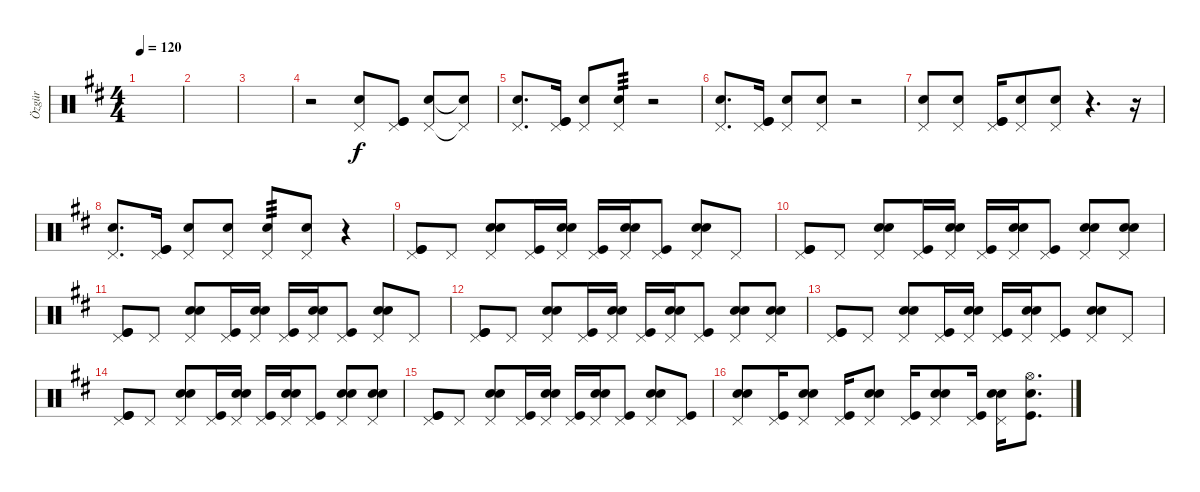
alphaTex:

\track ("Özgür" "Özgür") {instrument percussion}
\staff {score}
\articulation defaults
\ts (4 4)
\tempo 120
\clef neutral
\ks d
|
|
|
r.2 ("Pedal Hi-Hat (hit)" "Electric Snare (hit)").8 ("Pedal Hi-Hat (hit)" "Kick (hit)" "Kick (hit)").8 ("Pedal Hi-Hat (hit)" "Electric Snare (hit)").8 ("Pedal Hi-Hat (hit)"{t} "Electric Snare (hit)"{t}).8 |
("Pedal Hi-Hat (hit)" "Electric Snare (hit)").8{d} ("Pedal Hi-Hat (hit)" "Kick (hit)" "Kick (hit)").16 ("Pedal Hi-Hat (hit)" "Electric Snare (hit)").8 ("Pedal Hi-Hat (hit)" "Electric Snare (hit)").8{tp 3} r.2 |
("Pedal Hi-Hat (hit)" "Electric Snare (hit)").8{d} ("Pedal Hi-Hat (hit)" "Kick (hit)" "Kick (hit)").16 ("Pedal Hi-Hat (hit)" "Electric Snare (hit)").8 ("Pedal Hi-Hat (hit)" "Electric Snare (hit)").8 r.2 |
("Pedal Hi-Hat (hit)" "Electric Snare (hit)").8 ("Pedal Hi-Hat (hit)" "Electric Snare (hit)").8 ("Pedal Hi-Hat (hit)" "Kick (hit)" "Kick (hit)").16 ("Pedal Hi-Hat (hit)" "Electric Snare (hit)").8 ("Pedal Hi-Hat (hit)" "Electric Snare (hit)").8 r.4{d} r.16 |
("Pedal Hi-Hat (hit)" "Electric Snare (hit)").8{d} ("Pedal Hi-Hat (hit)" "Kick (hit)" "Kick (hit)").16 ("Pedal Hi-Hat (hit)" "Electric Snare (hit)").8 ("Pedal Hi-Hat (hit)" "Electric Snare (hit)").8 ("Pedal Hi-Hat (hit)" "Electric Snare (hit)").8{tp 3} ("Pedal Hi-Hat (hit)" "Electric Snare (hit)").8 r.4 |
("Pedal Hi-Hat (hit)" "Kick (hit)" "Kick (hit)").8 "Pedal Hi-Hat (hit)".8 ("Pedal Hi-Hat (hit)" "Electric Snare (hit)" "Electric Snare (hit)").8 ("Pedal Hi-Hat (hit)" "Kick (hit)").16 ("Pedal Hi-Hat (hit)" "Electric Snare (hit)" "Electric Snare (hit)").16 ("Pedal Hi-Hat (hit)" "Kick (hit)").16 ("Pedal Hi-Hat (hit)" "Electric Snare (hit)" "Electric Snare (hit)").16 ("Pedal Hi-Hat (hit)" "Kick (hit)").8 ("Pedal Hi-Hat (hit)" "Electric Snare (hit)" "Electric Snare (hit)").8 "Pedal Hi-Hat (hit)".8 |
("Pedal Hi-Hat (hit)" "Kick (hit)" "Kick (hit)").8 "Pedal Hi-Hat (hit)".8 ("Pedal Hi-Hat (hit)" "Electric Snare (hit)" "Electric Snare (hit)").8 ("Pedal Hi-Hat (hit)" "Kick (hit)").16 ("Pedal Hi-Hat (hit)" "Electric Snare (hit)" "Electric Snare (hit)").16 ("Pedal Hi-Hat (hit)" "Kick (hit)").16 ("Pedal Hi-Hat (hit)" "Electric Snare (hit)" "Electric Snare (hit)").16 ("Pedal Hi-Hat (hit)" "Kick (hit)").8 ("Pedal Hi-Hat (hit)" "Electric Snare (hit)" "Electric Snare (hit)").8 ("Pedal Hi-Hat (hit)" "Electric Snare (hit)" "Electric Snare (hit)").8 |
("Pedal Hi-Hat (hit)" "Kick (hit)" "Kick (hit)").8 "Pedal Hi-Hat (hit)".8 ("Pedal Hi-Hat (hit)" "Electric Snare (hit)" "Electric Snare (hit)").8 ("Pedal Hi-Hat (hit)" "Kick (hit)").16 ("Pedal Hi-Hat (hit)" "Electric Snare (hit)" "Electric Snare (hit)").16 ("Pedal Hi-Hat (hit)" "Kick (hit)").16 ("Pedal Hi-Hat (hit)" "Electric Snare (hit)" "Electric Snare (hit)").16 ("Pedal Hi-Hat (hit)" "Kick (hit)").8 ("Pedal Hi-Hat (hit)" "Electric Snare (hit)" "Electric Snare (hit)").8 "Pedal Hi-Hat (hit)".8 |
("Pedal Hi-Hat (hit)" "Kick (hit)" "Kick (hit)").8 "Pedal Hi-Hat (hit)".8 ("Pedal Hi-Hat (hit)" "Electric Snare (hit)" "Electric Snare (hit)").8 ("Pedal Hi-Hat (hit)" "Kick (hit)").16 ("Pedal Hi-Hat (hit)" "Electric Snare (hit)" "Electric Snare (hit)").16 ("Pedal Hi-Hat (hit)" "Kick (hit)").16 ("Pedal Hi-Hat (hit)" "Electric Snare (hit)" "Electric Snare (hit)").16 ("Pedal Hi-Hat (hit)" "Kick (hit)").8 ("Pedal Hi-Hat (hit)" "Electric Snare (hit)" "Electric Snare (hit)").8 ("Pedal Hi-Hat (hit)" "Electric Snare (hit)" "Electric Snare (hit)").8 |
("Pedal Hi-Hat (hit)" "Kick (hit)" "Kick (hit)").8 "Pedal Hi-Hat (hit)".8 ("Pedal Hi-Hat (hit)" "Electric Snare (hit)" "Electric Snare (hit)").8 ("Pedal Hi-Hat (hit)" "Kick (hit)").16 ("Pedal Hi-Hat (hit)" "Electric Snare (hit)" "Electric Snare (hit)").16 ("Pedal Hi-Hat (hit)" "Kick (hit)").16 ("Pedal Hi-Hat (hit)" "Electric Snare (hit)" "Electric Snare (hit)").16 ("Pedal Hi-Hat (hit)" "Kick (hit)").8 ("Pedal Hi-Hat (hit)" "Electric Snare (hit)" "Electric Snare (hit)").8 "Pedal Hi-Hat (hit)".8 |
("Pedal Hi-Hat (hit)" "Kick (hit)" "Kick (hit)").8 "Pedal Hi-Hat (hit)".8 ("Pedal Hi-Hat (hit)" "Electric Snare (hit)" "Electric Snare (hit)").8 ("Pedal Hi-Hat (hit)" "Kick (hit)").16 ("Pedal Hi-Hat (hit)" "Electric Snare (hit)" "Electric Snare (hit)").16 ("Pedal Hi-Hat (hit)" "Kick (hit)").16 ("Pedal Hi-Hat (hit)" "Electric Snare (hit)" "Electric Snare (hit)").16 ("Pedal Hi-Hat (hit)" "Kick (hit)").8 ("Pedal Hi-Hat (hit)" "Electric Snare (hit)" "Electric Snare (hit)").8 ("Pedal Hi-Hat (hit)" "Electric Snare (hit)" "Electric Snare (hit)").8 |
("Pedal Hi-Hat (hit)" "Kick (hit)" "Kick (hit)").8 "Pedal Hi-Hat (hit)".8 ("Pedal Hi-Hat (hit)" "Electric Snare (hit)" "Electric Snare (hit)").8 ("Pedal Hi-Hat (hit)" "Kick (hit)").16 ("Pedal Hi-Hat (hit)" "Electric Snare (hit)" "Electric Snare (hit)").16 ("Pedal Hi-Hat (hit)" "Kick (hit)").16 ("Pedal Hi-Hat (hit)" "Electric Snare (hit)" "Electric Snare (hit)").16 ("Pedal Hi-Hat (hit)" "Kick (hit)").8 ("Pedal Hi-Hat (hit)" "Electric Snare (hit)" "Electric Snare (hit)").8 ("Pedal Hi-Hat (hit)" "Kick (hit)").8 |
("Pedal Hi-Hat (hit)" "Electric Snare (hit)" "Electric Snare (hit)").8 ("Pedal Hi-Hat (hit)" "Kick (hit)").16 ("Pedal Hi-Hat (hit)" "Electric Snare (hit)" "Electric Snare (hit)").8 ("Pedal Hi-Hat (hit)" "Kick (hit)").16 ("Pedal Hi-Hat (hit)" "Electric Snare (hit)" "Electric Snare (hit)").8 ("Pedal Hi-Hat (hit)" "Kick (hit)").16 ("Pedal Hi-Hat (hit)" "Electric Snare (hit)" "Electric Snare (hit)").8 ("Pedal Hi-Hat (hit)" "Kick (hit)").16 ("Pedal Hi-Hat (hit)" "Electric Snare (hit)" "Electric Snare (hit)").16 ("Hi-Hat (open)" "Kick (hit)" "Electric Snare (hit)").8{d}
